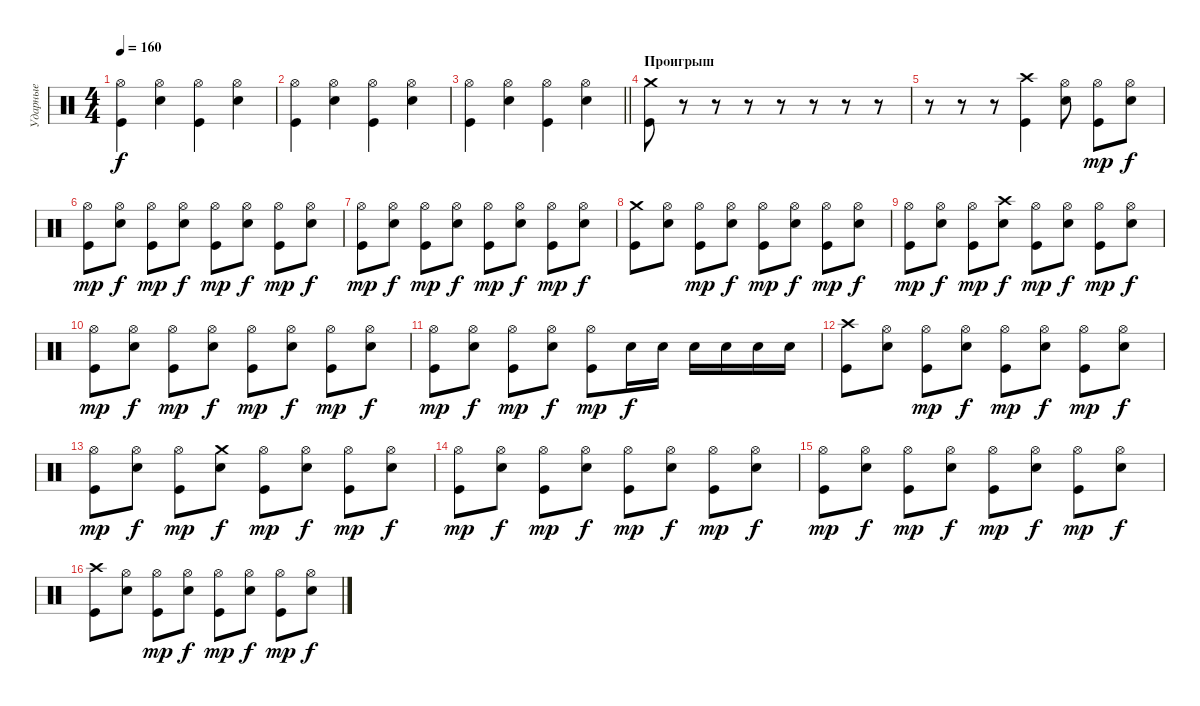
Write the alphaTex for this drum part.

\track ("Ударные" "Ударные") {instrument percussion}
\staff {score}
\articulation defaults
\ts (4 4)
\tempo 160
\clef neutral
\ks c
("Hi-Hat (open)" "Kick (hit)").4{dy f} ("Hi-Hat (open)" "Electric Snare (hit)").4 ("Hi-Hat (open)" "Kick (hit)").4 ("Hi-Hat (open)" "Electric Snare (hit)").4 |
("Hi-Hat (open)" "Kick (hit)").4 ("Hi-Hat (open)" "Electric Snare (hit)").4 ("Hi-Hat (open)" "Kick (hit)").4 ("Hi-Hat (open)" "Electric Snare (hit)").4 |
\barLineRight lightlight
("Hi-Hat (open)" "Kick (hit)").4 ("Hi-Hat (open)" "Electric Snare (hit)").4 ("Hi-Hat (open)" "Kick (hit)").4 ("Hi-Hat (open)" "Electric Snare (hit)").4 |
\section ("" "Проигрыш")
("Crash medium (hit)" "Kick (hit)").8 r.8 r.8 r.8 r.8 r.8 r.8 r.8 |
r.8 r.8 r.8 ("Crash high (hit)" "Kick (hit)").4 ("Hi-Hat (open)" "Electric Snare (hit)").8 ("Hi-Hat (open)" "Kick (hit)").8{dy mp} ("Hi-Hat (open)" "Electric Snare (hit)").8{dy f} |
("Hi-Hat (open)" "Kick (hit)").8{dy mp} ("Hi-Hat (open)" "Electric Snare (hit)").8{dy f} ("Hi-Hat (open)" "Kick (hit)").8{dy mp} ("Hi-Hat (open)" "Electric Snare (hit)").8{dy f} ("Hi-Hat (open)" "Kick (hit)").8{dy mp} ("Hi-Hat (open)" "Electric Snare (hit)").8{dy f} ("Hi-Hat (open)" "Kick (hit)").8{dy mp} ("Hi-Hat (open)" "Electric Snare (hit)").8{dy f} |
("Hi-Hat (open)" "Kick (hit)").8{dy mp} ("Hi-Hat (open)" "Electric Snare (hit)").8{dy f} ("Hi-Hat (open)" "Kick (hit)").8{dy mp} ("Hi-Hat (open)" "Electric Snare (hit)").8{dy f} ("Hi-Hat (open)" "Kick (hit)").8{dy mp} ("Hi-Hat (open)" "Electric Snare (hit)").8{dy f} ("Hi-Hat (open)" "Kick (hit)").8{dy mp} ("Hi-Hat (open)" "Electric Snare (hit)").8{dy f} |
("Crash medium (hit)" "Kick (hit)").8 ("Hi-Hat (open)" "Electric Snare (hit)").8 ("Hi-Hat (open)" "Kick (hit)").8{dy mp} ("Hi-Hat (open)" "Electric Snare (hit)").8{dy f} ("Hi-Hat (open)" "Kick (hit)").8{dy mp} ("Hi-Hat (open)" "Electric Snare (hit)").8{dy f} ("Hi-Hat (open)" "Kick (hit)").8{dy mp} ("Hi-Hat (open)" "Electric Snare (hit)").8{dy f} |
("Hi-Hat (open)" "Kick (hit)").8{dy mp} ("Hi-Hat (open)" "Electric Snare (hit)").8{dy f} ("Hi-Hat (open)" "Kick (hit)").8{dy mp} ("Crash high (hit)" "Electric Snare (hit)").8{dy f} ("Hi-Hat (open)" "Kick (hit)").8{dy mp} ("Hi-Hat (open)" "Electric Snare (hit)").8{dy f} ("Hi-Hat (open)" "Kick (hit)").8{dy mp} ("Hi-Hat (open)" "Electric Snare (hit)").8{dy f} |
("Hi-Hat (open)" "Kick (hit)").8{dy mp} ("Hi-Hat (open)" "Electric Snare (hit)").8{dy f} ("Hi-Hat (open)" "Kick (hit)").8{dy mp} ("Hi-Hat (open)" "Electric Snare (hit)").8{dy f} ("Hi-Hat (open)" "Kick (hit)").8{dy mp} ("Hi-Hat (open)" "Electric Snare (hit)").8{dy f} ("Hi-Hat (open)" "Kick (hit)").8{dy mp} ("Hi-Hat (open)" "Electric Snare (hit)").8{dy f} |
("Hi-Hat (open)" "Kick (hit)").8{dy mp} ("Hi-Hat (open)" "Electric Snare (hit)").8{dy f} ("Hi-Hat (open)" "Kick (hit)").8{dy mp} ("Hi-Hat (open)" "Electric Snare (hit)").8{dy f} ("Hi-Hat (open)" "Kick (hit)").8{dy mp} "Electric Snare (hit)".16{dy f} "Electric Snare (hit)".16 "Electric Snare (hit)".16 "Electric Snare (hit)".16 "Electric Snare (hit)".16 "Electric Snare (hit)".16 |
("Crash high (hit)" "Kick (hit)").8 ("Hi-Hat (open)" "Electric Snare (hit)").8 ("Hi-Hat (open)" "Kick (hit)").8{dy mp} ("Hi-Hat (open)" "Electric Snare (hit)").8{dy f} ("Hi-Hat (open)" "Kick (hit)").8{dy mp} ("Hi-Hat (open)" "Electric Snare (hit)").8{dy f} ("Hi-Hat (open)" "Kick (hit)").8{dy mp} ("Hi-Hat (open)" "Electric Snare (hit)").8{dy f} |
("Hi-Hat (open)" "Kick (hit)").8{dy mp} ("Hi-Hat (open)" "Electric Snare (hit)").8{dy f} ("Hi-Hat (open)" "Kick (hit)").8{dy mp} ("Crash medium (hit)" "Electric Snare (hit)").8{dy f} ("Hi-Hat (open)" "Kick (hit)").8{dy mp} ("Hi-Hat (open)" "Electric Snare (hit)").8{dy f} ("Hi-Hat (open)" "Kick (hit)").8{dy mp} ("Hi-Hat (open)" "Electric Snare (hit)").8{dy f} |
("Hi-Hat (open)" "Kick (hit)").8{dy mp} ("Hi-Hat (open)" "Electric Snare (hit)").8{dy f} ("Hi-Hat (open)" "Kick (hit)").8{dy mp} ("Hi-Hat (open)" "Electric Snare (hit)").8{dy f} ("Hi-Hat (open)" "Kick (hit)").8{dy mp} ("Hi-Hat (open)" "Electric Snare (hit)").8{dy f} ("Hi-Hat (open)" "Kick (hit)").8{dy mp} ("Hi-Hat (open)" "Electric Snare (hit)").8{dy f} |
("Hi-Hat (open)" "Kick (hit)").8{dy mp} ("Hi-Hat (open)" "Electric Snare (hit)").8{dy f} ("Hi-Hat (open)" "Kick (hit)").8{dy mp} ("Hi-Hat (open)" "Electric Snare (hit)").8{dy f} ("Hi-Hat (open)" "Kick (hit)").8{dy mp} ("Hi-Hat (open)" "Electric Snare (hit)").8{dy f} ("Hi-Hat (open)" "Kick (hit)").8{dy mp} ("Hi-Hat (open)" "Electric Snare (hit)").8{dy f} |
("Crash high (hit)" "Kick (hit)").8 ("Hi-Hat (open)" "Electric Snare (hit)").8 ("Hi-Hat (open)" "Kick (hit)").8{dy mp} ("Hi-Hat (open)" "Electric Snare (hit)").8{dy f} ("Hi-Hat (open)" "Kick (hit)").8{dy mp} ("Hi-Hat (open)" "Electric Snare (hit)").8{dy f} ("Hi-Hat (open)" "Kick (hit)").8{dy mp} ("Hi-Hat (open)" "Electric Snare (hit)").8{dy f}
